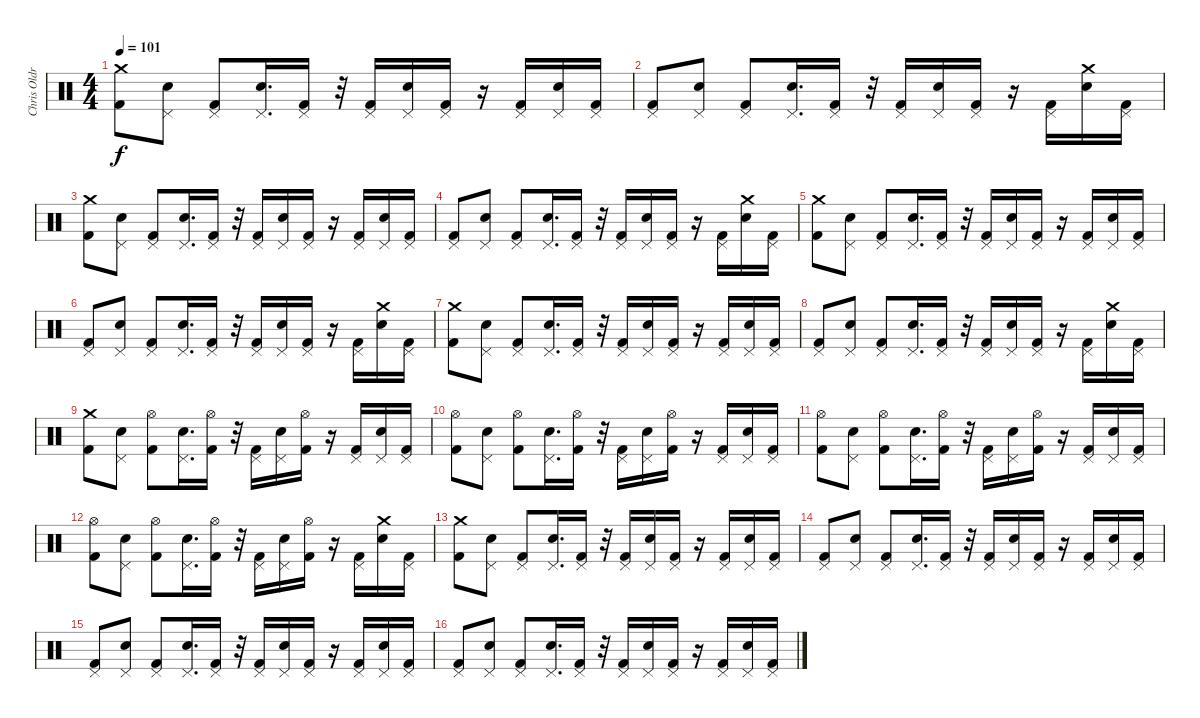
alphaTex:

\track ("Chris Oldroyd" "Chris Oldr") {instrument percussion}
\staff {score}
\articulation defaults
\ts (4 4)
\tempo 101
\clef neutral
\ks c
("Crash medium (hit)" "Kick (hit) 2").8{dy f} ("Pedal Hi-Hat (hit)" "Snare (hit) 2").8 ("Pedal Hi-Hat (hit)" "Kick (hit) 2").8 ("Pedal Hi-Hat (hit)" "Snare (hit) 2").16{d} ("Pedal Hi-Hat (hit)" "Kick (hit) 2").16 r.32 ("Pedal Hi-Hat (hit)" "Kick (hit) 2").16 ("Pedal Hi-Hat (hit)" "Snare (hit) 2").16 ("Pedal Hi-Hat (hit)" "Kick (hit) 2").16 r.16 ("Pedal Hi-Hat (hit)" "Kick (hit) 2").16 ("Pedal Hi-Hat (hit)" "Snare (hit) 2").16 ("Pedal Hi-Hat (hit)" "Kick (hit) 2").16 |
("Pedal Hi-Hat (hit)" "Kick (hit) 2").8 ("Pedal Hi-Hat (hit)" "Snare (hit) 2").8 ("Pedal Hi-Hat (hit)" "Kick (hit) 2").8 ("Pedal Hi-Hat (hit)" "Snare (hit) 2").16{d} ("Pedal Hi-Hat (hit)" "Kick (hit) 2").16 r.32 ("Pedal Hi-Hat (hit)" "Kick (hit) 2").16 ("Pedal Hi-Hat (hit)" "Snare (hit) 2").16 ("Pedal Hi-Hat (hit)" "Kick (hit) 2").16 r.16 ("Pedal Hi-Hat (hit)" "Kick (hit) 2").16 ("Crash medium (hit)" "Snare (hit) 2").16 ("Pedal Hi-Hat (hit)" "Kick (hit) 2").16 |
("Crash medium (hit)" "Kick (hit) 2").8 ("Pedal Hi-Hat (hit)" "Snare (hit) 2").8 ("Pedal Hi-Hat (hit)" "Kick (hit) 2").8 ("Pedal Hi-Hat (hit)" "Snare (hit) 2").16{d} ("Pedal Hi-Hat (hit)" "Kick (hit) 2").16 r.32 ("Pedal Hi-Hat (hit)" "Kick (hit) 2").16 ("Pedal Hi-Hat (hit)" "Snare (hit) 2").16 ("Pedal Hi-Hat (hit)" "Kick (hit) 2").16 r.16 ("Pedal Hi-Hat (hit)" "Kick (hit) 2").16 ("Pedal Hi-Hat (hit)" "Snare (hit) 2").16 ("Pedal Hi-Hat (hit)" "Kick (hit) 2").16 |
("Pedal Hi-Hat (hit)" "Kick (hit) 2").8 ("Pedal Hi-Hat (hit)" "Snare (hit) 2").8 ("Pedal Hi-Hat (hit)" "Kick (hit) 2").8 ("Pedal Hi-Hat (hit)" "Snare (hit) 2").16{d} ("Pedal Hi-Hat (hit)" "Kick (hit) 2").16 r.32 ("Pedal Hi-Hat (hit)" "Kick (hit) 2").16 ("Pedal Hi-Hat (hit)" "Snare (hit) 2").16 ("Pedal Hi-Hat (hit)" "Kick (hit) 2").16 r.16 ("Pedal Hi-Hat (hit)" "Kick (hit) 2").16 ("Crash medium (hit)" "Snare (hit) 2").16 ("Pedal Hi-Hat (hit)" "Kick (hit) 2").16 |
("Crash medium (hit)" "Kick (hit) 2").8 ("Pedal Hi-Hat (hit)" "Snare (hit) 2").8 ("Pedal Hi-Hat (hit)" "Kick (hit) 2").8 ("Pedal Hi-Hat (hit)" "Snare (hit) 2").16{d} ("Pedal Hi-Hat (hit)" "Kick (hit) 2").16 r.32 ("Pedal Hi-Hat (hit)" "Kick (hit) 2").16 ("Pedal Hi-Hat (hit)" "Snare (hit) 2").16 ("Pedal Hi-Hat (hit)" "Kick (hit) 2").16 r.16 ("Pedal Hi-Hat (hit)" "Kick (hit) 2").16 ("Pedal Hi-Hat (hit)" "Snare (hit) 2").16 ("Pedal Hi-Hat (hit)" "Kick (hit) 2").16 |
("Pedal Hi-Hat (hit)" "Kick (hit) 2").8 ("Pedal Hi-Hat (hit)" "Snare (hit) 2").8 ("Pedal Hi-Hat (hit)" "Kick (hit) 2").8 ("Pedal Hi-Hat (hit)" "Snare (hit) 2").16{d} ("Pedal Hi-Hat (hit)" "Kick (hit) 2").16 r.32 ("Pedal Hi-Hat (hit)" "Kick (hit) 2").16 ("Pedal Hi-Hat (hit)" "Snare (hit) 2").16 ("Pedal Hi-Hat (hit)" "Kick (hit) 2").16 r.16 ("Pedal Hi-Hat (hit)" "Kick (hit) 2").16 ("Crash medium (hit)" "Snare (hit) 2").16 ("Pedal Hi-Hat (hit)" "Kick (hit) 2").16 |
("Crash medium (hit)" "Kick (hit) 2").8 ("Pedal Hi-Hat (hit)" "Snare (hit) 2").8 ("Pedal Hi-Hat (hit)" "Kick (hit) 2").8 ("Pedal Hi-Hat (hit)" "Snare (hit) 2").16{d} ("Pedal Hi-Hat (hit)" "Kick (hit) 2").16 r.32 ("Pedal Hi-Hat (hit)" "Kick (hit) 2").16 ("Pedal Hi-Hat (hit)" "Snare (hit) 2").16 ("Pedal Hi-Hat (hit)" "Kick (hit) 2").16 r.16 ("Pedal Hi-Hat (hit)" "Kick (hit) 2").16 ("Pedal Hi-Hat (hit)" "Snare (hit) 2").16 ("Pedal Hi-Hat (hit)" "Kick (hit) 2").16 |
("Pedal Hi-Hat (hit)" "Kick (hit) 2").8 ("Pedal Hi-Hat (hit)" "Snare (hit) 2").8 ("Pedal Hi-Hat (hit)" "Kick (hit) 2").8 ("Pedal Hi-Hat (hit)" "Snare (hit) 2").16{d} ("Pedal Hi-Hat (hit)" "Kick (hit) 2").16 r.32 ("Pedal Hi-Hat (hit)" "Kick (hit) 2").16 ("Pedal Hi-Hat (hit)" "Snare (hit) 2").16 ("Pedal Hi-Hat (hit)" "Kick (hit) 2").16 r.16 ("Pedal Hi-Hat (hit)" "Kick (hit) 2").16 ("Crash medium (hit)" "Snare (hit) 2").16 ("Pedal Hi-Hat (hit)" "Kick (hit) 2").16 |
("Crash medium (hit)" "Kick (hit) 2").8 ("Pedal Hi-Hat (hit)" "Snare (hit) 2").8 ("Hi-Hat (open)" "Kick (hit) 2").8 ("Pedal Hi-Hat (hit)" "Snare (hit) 2").16{d} ("Hi-Hat (open)" "Kick (hit) 2").16 r.32 ("Pedal Hi-Hat (hit)" "Kick (hit) 2").16 ("Pedal Hi-Hat (hit)" "Snare (hit) 2").16 ("Hi-Hat (open)" "Kick (hit) 2").16 r.16 ("Pedal Hi-Hat (hit)" "Kick (hit) 2").16 ("Pedal Hi-Hat (hit)" "Snare (hit) 2").16 ("Pedal Hi-Hat (hit)" "Kick (hit) 2").16 |
("Hi-Hat (open)" "Kick (hit) 2").8 ("Pedal Hi-Hat (hit)" "Snare (hit) 2").8 ("Hi-Hat (open)" "Kick (hit) 2").8 ("Pedal Hi-Hat (hit)" "Snare (hit) 2").16{d} ("Hi-Hat (open)" "Kick (hit) 2").16 r.32 ("Pedal Hi-Hat (hit)" "Kick (hit) 2").16 ("Pedal Hi-Hat (hit)" "Snare (hit) 2").16 ("Hi-Hat (open)" "Kick (hit) 2").16 r.16 ("Pedal Hi-Hat (hit)" "Kick (hit) 2").16 ("Pedal Hi-Hat (hit)" "Snare (hit) 2").16 ("Pedal Hi-Hat (hit)" "Kick (hit) 2").16 |
("Hi-Hat (open)" "Kick (hit) 2").8 ("Pedal Hi-Hat (hit)" "Snare (hit) 2").8 ("Hi-Hat (open)" "Kick (hit) 2").8 ("Pedal Hi-Hat (hit)" "Snare (hit) 2").16{d} ("Hi-Hat (open)" "Kick (hit) 2").16 r.32 ("Pedal Hi-Hat (hit)" "Kick (hit) 2").16 ("Pedal Hi-Hat (hit)" "Snare (hit) 2").16 ("Hi-Hat (open)" "Kick (hit) 2").16 r.16 ("Pedal Hi-Hat (hit)" "Kick (hit) 2").16 ("Pedal Hi-Hat (hit)" "Snare (hit) 2").16 ("Pedal Hi-Hat (hit)" "Kick (hit) 2").16 |
("Hi-Hat (open)" "Kick (hit) 2").8 ("Pedal Hi-Hat (hit)" "Snare (hit) 2").8 ("Hi-Hat (open)" "Kick (hit) 2").8 ("Pedal Hi-Hat (hit)" "Snare (hit) 2").16{d} ("Hi-Hat (open)" "Kick (hit) 2").16 r.32 ("Pedal Hi-Hat (hit)" "Kick (hit) 2").16 ("Pedal Hi-Hat (hit)" "Snare (hit) 2").16 ("Hi-Hat (open)" "Kick (hit) 2").16 r.16 ("Pedal Hi-Hat (hit)" "Kick (hit) 2").16 ("Crash medium (hit)" "Snare (hit) 2").16 ("Pedal Hi-Hat (hit)" "Kick (hit) 2").16 |
("Crash medium (hit)" "Kick (hit) 2").8 ("Pedal Hi-Hat (hit)" "Snare (hit) 2").8 ("Pedal Hi-Hat (hit)" "Kick (hit) 2").8 ("Pedal Hi-Hat (hit)" "Snare (hit) 2").16{d} ("Pedal Hi-Hat (hit)" "Kick (hit) 2").16 r.32 ("Pedal Hi-Hat (hit)" "Kick (hit) 2").16 ("Pedal Hi-Hat (hit)" "Snare (hit) 2").16 ("Pedal Hi-Hat (hit)" "Kick (hit) 2").16 r.16 ("Pedal Hi-Hat (hit)" "Kick (hit) 2").16 ("Pedal Hi-Hat (hit)" "Snare (hit) 2").16 ("Pedal Hi-Hat (hit)" "Kick (hit) 2").16 |
("Pedal Hi-Hat (hit)" "Kick (hit) 2").8 ("Pedal Hi-Hat (hit)" "Snare (hit) 2").8 ("Pedal Hi-Hat (hit)" "Kick (hit) 2").8 ("Pedal Hi-Hat (hit)" "Snare (hit) 2").16{d} ("Pedal Hi-Hat (hit)" "Kick (hit) 2").16 r.32 ("Pedal Hi-Hat (hit)" "Kick (hit) 2").16 ("Pedal Hi-Hat (hit)" "Snare (hit) 2").16 ("Pedal Hi-Hat (hit)" "Kick (hit) 2").16 r.16 ("Pedal Hi-Hat (hit)" "Kick (hit) 2").16 ("Pedal Hi-Hat (hit)" "Snare (hit) 2").16 ("Pedal Hi-Hat (hit)" "Kick (hit) 2").16 |
("Pedal Hi-Hat (hit)" "Kick (hit) 2").8 ("Pedal Hi-Hat (hit)" "Snare (hit) 2").8 ("Pedal Hi-Hat (hit)" "Kick (hit) 2").8 ("Pedal Hi-Hat (hit)" "Snare (hit) 2").16{d} ("Pedal Hi-Hat (hit)" "Kick (hit) 2").16 r.32 ("Pedal Hi-Hat (hit)" "Kick (hit) 2").16 ("Pedal Hi-Hat (hit)" "Snare (hit) 2").16 ("Pedal Hi-Hat (hit)" "Kick (hit) 2").16 r.16 ("Pedal Hi-Hat (hit)" "Kick (hit) 2").16 ("Pedal Hi-Hat (hit)" "Snare (hit) 2").16 ("Pedal Hi-Hat (hit)" "Kick (hit) 2").16 |
("Pedal Hi-Hat (hit)" "Kick (hit) 2").8 ("Pedal Hi-Hat (hit)" "Snare (hit) 2").8 ("Pedal Hi-Hat (hit)" "Kick (hit) 2").8 ("Pedal Hi-Hat (hit)" "Snare (hit) 2").16{d} ("Pedal Hi-Hat (hit)" "Kick (hit) 2").16 r.32 ("Pedal Hi-Hat (hit)" "Kick (hit) 2").16 ("Pedal Hi-Hat (hit)" "Snare (hit) 2").16 ("Pedal Hi-Hat (hit)" "Kick (hit) 2").16 r.16 ("Pedal Hi-Hat (hit)" "Kick (hit) 2").16 ("Pedal Hi-Hat (hit)" "Snare (hit) 2").16 ("Pedal Hi-Hat (hit)" "Kick (hit) 2").16
